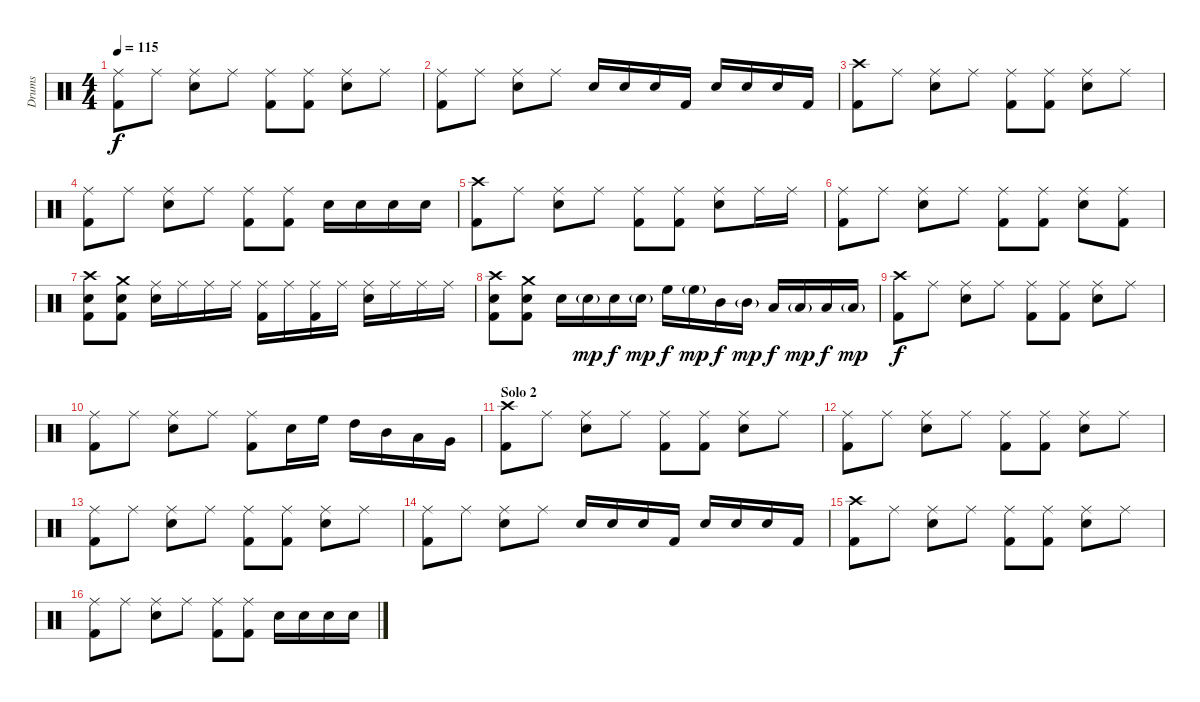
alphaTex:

\track ("Drums" "Drums") {instrument percussion}
\staff {score}
\articulation defaults
\ts (4 4)
\tempo 115
\clef neutral
\ks c
("Ride (middle)" "Kick (hit) 2").8{dy f} "Ride (middle)".8 ("Ride (middle)" "Electric Snare (hit)").8 "Ride (middle)".8 ("Ride (middle)" "Kick (hit) 2").8 ("Ride (middle)" "Kick (hit) 2").8 ("Ride (middle)" "Electric Snare (hit)").8 "Ride (middle)".8 |
("Ride (middle)" "Kick (hit) 2").8 "Ride (middle)".8 ("Ride (middle)" "Electric Snare (hit)").8 "Ride (middle)".8 "Electric Snare (hit)".16 "Electric Snare (hit)".16 "Electric Snare (hit)".16 "Kick (hit) 2".16 "Electric Snare (hit)".16 "Electric Snare (hit)".16 "Electric Snare (hit)".16 "Kick (hit) 2".16 |
("Crash high (hit)" "Kick (hit) 2").8 "Ride (middle)".8 ("Ride (middle)" "Electric Snare (hit)").8 "Ride (middle)".8 ("Ride (middle)" "Kick (hit) 2").8 ("Ride (middle)" "Kick (hit) 2").8 ("Ride (middle)" "Electric Snare (hit)").8 "Ride (middle)".8 |
("Ride (middle)" "Kick (hit) 2").8 "Ride (middle)".8 ("Ride (middle)" "Electric Snare (hit)").8 "Ride (middle)".8 ("Ride (middle)" "Kick (hit) 2").8 ("Ride (middle)" "Kick (hit) 2").8 "Electric Snare (hit)".16 "Electric Snare (hit)".16 "Electric Snare (hit)".16 "Electric Snare (hit)".16 |
("Crash high (hit)" "Kick (hit) 2").8 "Ride (middle)".8 ("Ride (middle)" "Electric Snare (hit)").8 "Ride (middle)".8 ("Ride (middle)" "Kick (hit) 2").8 ("Ride (middle)" "Kick (hit) 2").8 ("Ride (middle)" "Electric Snare (hit)").8 "Ride (middle)".16 "Ride (middle)".16 |
("Ride (middle)" "Kick (hit) 2").8 "Ride (middle)".8 ("Ride (middle)" "Electric Snare (hit)").8 "Ride (middle)".8 ("Ride (middle)" "Kick (hit) 2").8 ("Ride (middle)" "Kick (hit) 2").8 ("Ride (middle)" "Electric Snare (hit)").8 ("Ride (middle)" "Kick (hit) 2").8 |
("Crash high (hit)" "Kick (hit) 2" "Electric Snare (hit)").8 ("Crash medium (hit)" "Kick (hit) 2" "Electric Snare (hit)").8 ("Ride (middle)" "Electric Snare (hit)").16 "Ride (middle)".16 "Ride (middle)".16 "Ride (middle)".16 ("Ride (middle)" "Kick (hit) 2").16 "Ride (middle)".16 ("Ride (middle)" "Kick (hit) 2").16 "Ride (middle)".16 ("Ride (middle)" "Electric Snare (hit)").16 "Ride (middle)".16 "Ride (middle)".16 "Ride (middle)".16 |
("Crash high (hit)" "Kick (hit) 2" "Electric Snare (hit)").8 ("Crash medium (hit)" "Kick (hit) 2" "Electric Snare (hit)").8 "Electric Snare (hit)".16 "Electric Snare (hit)"{g}.16{dy mp} "Electric Snare (hit)".16{dy f} "Electric Snare (hit)"{g}.16{dy mp} "High Floor Tom (hit)".16{dy f} "High Floor Tom (hit)"{g}.16{dy mp} "Mid Tom (hit)".16{dy f} "Mid Tom (hit)"{g}.16{dy mp} "Low Tom (hit)".16{dy f} "Low Tom (hit)"{g}.16{dy mp} "Low Floor Tom (hit)".16{dy f} "Low Floor Tom (hit)"{g}.16{dy mp} |
("Crash high (hit)" "Kick (hit) 2").8{dy f} "Ride (middle)".8 ("Ride (middle)" "Electric Snare (hit)").8 "Ride (middle)".8 ("Ride (middle)" "Kick (hit) 2").8 ("Ride (middle)" "Kick (hit) 2").8 ("Ride (middle)" "Electric Snare (hit)").8 "Ride (middle)".8 |
("Ride (middle)" "Kick (hit) 2").8 "Ride (middle)".8 ("Ride (middle)" "Electric Snare (hit)").8 "Ride (middle)".8 ("Ride (middle)" "Kick (hit) 2").8 "Electric Snare (hit)".16 "High Floor Tom (hit)".16 "High Tom (hit)".16 "Mid Tom (hit)".16 "Low Tom (hit)".16 "Very Low Tom (hit)".16 |
\section ("" "Solo 2")
("Crash high (hit)" "Kick (hit) 2").8 "Ride (middle)".8 ("Ride (middle)" "Electric Snare (hit)").8 "Ride (middle)".8 ("Ride (middle)" "Kick (hit) 2").8 ("Ride (middle)" "Kick (hit) 2").8 ("Ride (middle)" "Electric Snare (hit)").8 "Ride (middle)".8 |
("Ride (middle)" "Kick (hit) 2").8 "Ride (middle)".8 ("Ride (middle)" "Electric Snare (hit)").8 "Ride (middle)".8 ("Ride (middle)" "Kick (hit) 2").8 ("Ride (middle)" "Kick (hit) 2").8 ("Ride (middle)" "Electric Snare (hit)").8 "Ride (middle)".8 |
("Ride (middle)" "Kick (hit) 2").8 "Ride (middle)".8 ("Ride (middle)" "Electric Snare (hit)").8 "Ride (middle)".8 ("Ride (middle)" "Kick (hit) 2").8 ("Ride (middle)" "Kick (hit) 2").8 ("Ride (middle)" "Electric Snare (hit)").8 "Ride (middle)".8 |
("Ride (middle)" "Kick (hit) 2").8 "Ride (middle)".8 ("Ride (middle)" "Electric Snare (hit)").8 "Ride (middle)".8 "Electric Snare (hit)".16 "Electric Snare (hit)".16 "Electric Snare (hit)".16 "Kick (hit) 2".16 "Electric Snare (hit)".16 "Electric Snare (hit)".16 "Electric Snare (hit)".16 "Kick (hit) 2".16 |
("Crash high (hit)" "Kick (hit) 2").8 "Ride (middle)".8 ("Ride (middle)" "Electric Snare (hit)").8 "Ride (middle)".8 ("Ride (middle)" "Kick (hit) 2").8 ("Ride (middle)" "Kick (hit) 2").8 ("Ride (middle)" "Electric Snare (hit)").8 "Ride (middle)".8 |
("Ride (middle)" "Kick (hit) 2").8 "Ride (middle)".8 ("Ride (middle)" "Electric Snare (hit)").8 "Ride (middle)".8 ("Ride (middle)" "Kick (hit) 2").8 ("Ride (middle)" "Kick (hit) 2").8 "Electric Snare (hit)".16 "Electric Snare (hit)".16 "Electric Snare (hit)".16 "Electric Snare (hit)".16
